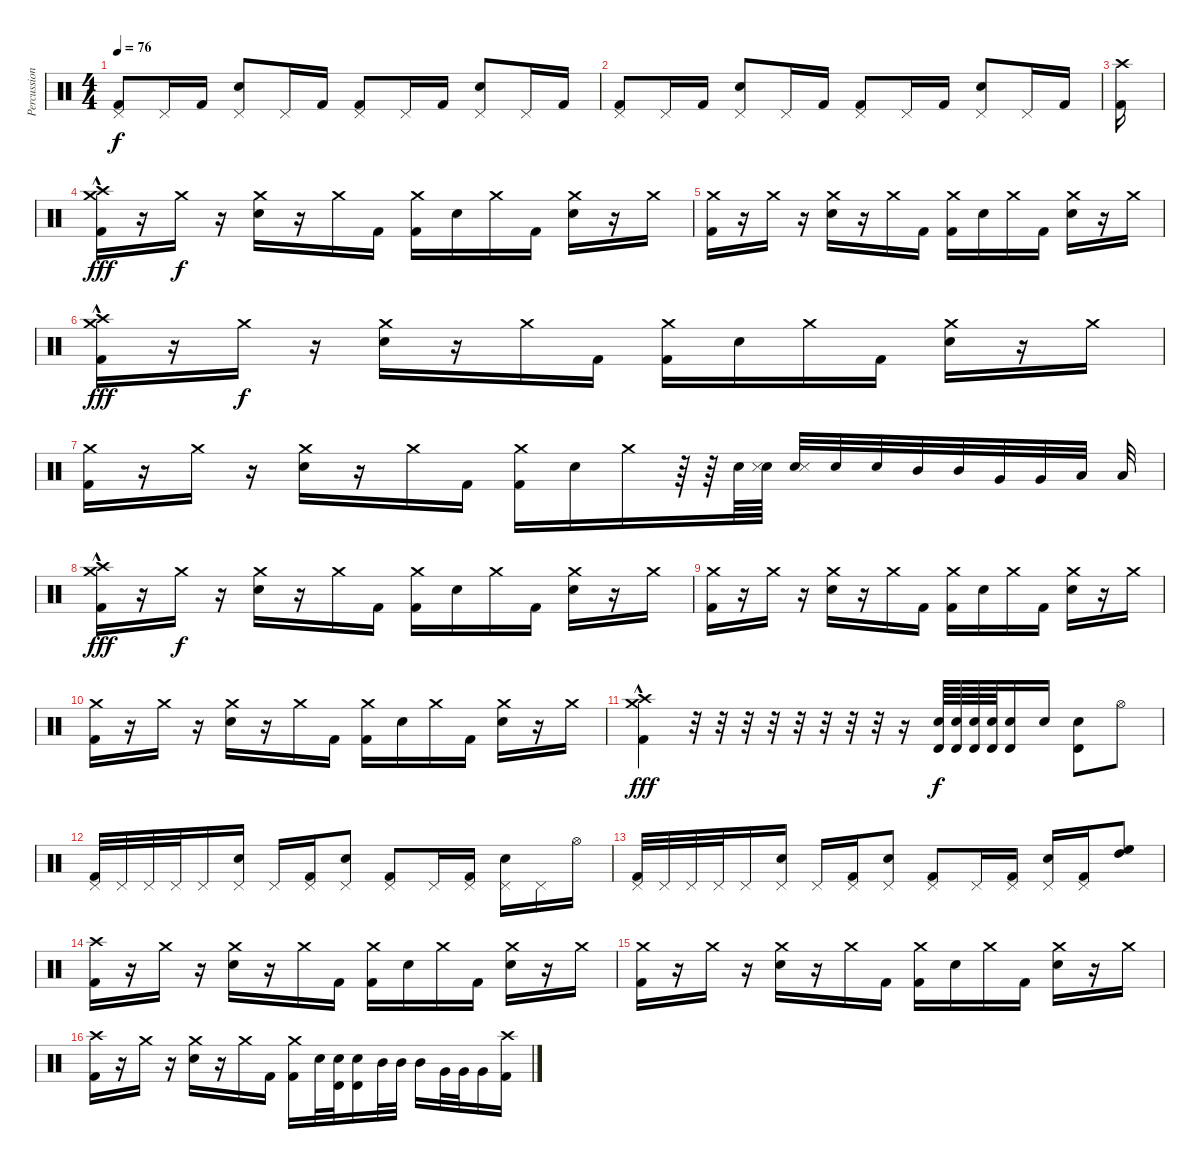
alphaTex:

\track ("Percussion" "Percussion") {instrument percussion}
\staff {score}
\articulation defaults
\ts (4 4)
\tempo 76
\clef neutral
\ks c
("Pedal Hi-Hat (hit)" "Kick (hit) 2").8{dy f volume 16} "Pedal Hi-Hat (hit)".16 "Kick (hit) 2".16 ("Pedal Hi-Hat (hit)" "Electric Snare (hit)").8 "Pedal Hi-Hat (hit)".16 "Kick (hit) 2".16 ("Pedal Hi-Hat (hit)" "Kick (hit) 2").8 "Pedal Hi-Hat (hit)".16 "Kick (hit) 2".16 ("Pedal Hi-Hat (hit)" "Electric Snare (hit)").8 "Pedal Hi-Hat (hit)".16 "Kick (hit) 2".16 |
("Pedal Hi-Hat (hit)" "Kick (hit) 2").8 "Pedal Hi-Hat (hit)".16 "Kick (hit) 2".16 ("Pedal Hi-Hat (hit)" "Electric Snare (hit)").8 "Pedal Hi-Hat (hit)".16 "Kick (hit) 2".16 ("Pedal Hi-Hat (hit)" "Kick (hit) 2").8 "Pedal Hi-Hat (hit)".16 "Kick (hit) 2".16 ("Pedal Hi-Hat (hit)" "Electric Snare (hit)").8 "Pedal Hi-Hat (hit)".16 "Kick (hit) 2".16 |
("Crash high (hit)" "Kick (hit) 2").16{volume 16} |
("Crash high (hit)"{hac} "Crash medium (hit)"{hac} "Kick (hit) 2").16{dy fff} r.16 "Crash medium (hit)".16{dy f} r.16 ("Crash medium (hit)" "Electric Snare (hit)").16 r.16 "Crash medium (hit)".16 "Kick (hit) 2".16 ("Crash medium (hit)" "Kick (hit) 2").16 "Electric Snare (hit)".16 "Crash medium (hit)".16 "Kick (hit) 2".16 ("Crash medium (hit)" "Electric Snare (hit)").16 r.16 "Crash medium (hit)".16 |
("Crash medium (hit)" "Kick (hit) 2").16 r.16 "Crash medium (hit)".16 r.16 ("Crash medium (hit)" "Electric Snare (hit)").16 r.16 "Crash medium (hit)".16 "Kick (hit) 2".16 ("Crash medium (hit)" "Kick (hit) 2").16 "Electric Snare (hit)".16 "Crash medium (hit)".16 "Kick (hit) 2".16 ("Crash medium (hit)" "Electric Snare (hit)").16 r.16 "Crash medium (hit)".16 |
("Crash high (hit)"{hac} "Crash medium (hit)"{hac} "Kick (hit) 2").16{dy fff} r.16 "Crash medium (hit)".16{dy f} r.16 ("Crash medium (hit)" "Electric Snare (hit)").16 r.16 "Crash medium (hit)".16 "Kick (hit) 2".16 ("Crash medium (hit)" "Kick (hit) 2").16 "Electric Snare (hit)".16 "Crash medium (hit)".16 "Kick (hit) 2".16 ("Crash medium (hit)" "Electric Snare (hit)").16 r.16 "Crash medium (hit)".16 |
("Crash medium (hit)" "Kick (hit) 2").16 r.16 "Crash medium (hit)".16 r.16 ("Crash medium (hit)" "Electric Snare (hit)").16 r.16 "Crash medium (hit)".16 "Kick (hit) 2".16 ("Crash medium (hit)" "Kick (hit) 2").16 "Electric Snare (hit)".16 "Crash medium (hit)".16 r.64 r.64 "Electric Snare (hit)".64 ("Electric Snare (hit)" "Snare (side stick) 3").64 ("Electric Snare (hit)" "Snare (side stick) 3").32 "Electric Snare (hit)".32 "Electric Snare (hit)".32 "Mid Tom (hit)".32 "Mid Tom (hit)".32 "Very Low Tom (hit)".32 "Very Low Tom (hit)".32 "Low Floor Tom (hit)".32 "Low Floor Tom (hit)".32 |
("Crash high (hit)"{hac} "Crash medium (hit)"{hac} "Kick (hit) 2"{hac}).16{dy fff} r.16 "Crash medium (hit)".16{dy f} r.16 ("Crash medium (hit)" "Electric Snare (hit)").16 r.16 "Crash medium (hit)".16 "Kick (hit) 2".16 ("Crash medium (hit)" "Kick (hit) 2").16 "Electric Snare (hit)".16 "Crash medium (hit)".16 "Kick (hit) 2".16 ("Crash medium (hit)" "Electric Snare (hit)").16 r.16 "Crash medium (hit)".16 |
("Crash medium (hit)" "Kick (hit) 2").16 r.16 "Crash medium (hit)".16 r.16 ("Crash medium (hit)" "Electric Snare (hit)").16 r.16 "Crash medium (hit)".16 "Kick (hit) 2".16 ("Crash medium (hit)" "Kick (hit) 2").16 "Electric Snare (hit)".16 "Crash medium (hit)".16 "Kick (hit) 2".16 ("Crash medium (hit)" "Electric Snare (hit)").16 r.16 "Crash medium (hit)".16 |
("Crash medium (hit)" "Kick (hit) 2").16 r.16 "Crash medium (hit)".16 r.16 ("Crash medium (hit)" "Electric Snare (hit)").16 r.16 "Crash medium (hit)".16 "Kick (hit) 2".16 ("Crash medium (hit)" "Kick (hit) 2").16 "Electric Snare (hit)".16 "Crash medium (hit)".16 "Kick (hit) 2".16 ("Crash medium (hit)" "Electric Snare (hit)").16 r.16 "Crash medium (hit)".16 |
("Crash high (hit)"{hac} "Crash medium (hit)"{hac} "Kick (hit) 2").4{dy fff} r.32 r.32 r.32 r.32 r.32 r.32 r.32 r.32 r.16 ("Electric Snare (hit)" "Timbale high (hit)").64{dy f} ("Electric Snare (hit)" "Timbale high (hit)").64 ("Electric Snare (hit)" "Timbale high (hit)").64 ("Electric Snare (hit)" "Timbale high (hit)").64 ("Electric Snare (hit)" "Timbale high (hit)").16 "Electric Snare (hit)".16 ("Electric Snare (hit)" "Timbale high (hit)").8 "Hi-Hat (open)".8 |
("Pedal Hi-Hat (hit)" "Kick (hit) 2").32 "Pedal Hi-Hat (hit)".32 "Pedal Hi-Hat (hit)".32 "Pedal Hi-Hat (hit)".32 "Pedal Hi-Hat (hit)".16 ("Pedal Hi-Hat (hit)" "Electric Snare (hit)").16 "Pedal Hi-Hat (hit)".16 ("Pedal Hi-Hat (hit)" "Kick (hit) 2").16 ("Pedal Hi-Hat (hit)" "Electric Snare (hit)").8 ("Pedal Hi-Hat (hit)" "Kick (hit) 2").8 "Pedal Hi-Hat (hit)".16 ("Pedal Hi-Hat (hit)" "Kick (hit) 2").16 ("Pedal Hi-Hat (hit)" "Electric Snare (hit)").16 "Pedal Hi-Hat (hit)".16 "Hi-Hat (open)".16 |
("Pedal Hi-Hat (hit)" "Kick (hit) 2").32 "Pedal Hi-Hat (hit)".32 "Pedal Hi-Hat (hit)".32 "Pedal Hi-Hat (hit)".32 "Pedal Hi-Hat (hit)".16 ("Pedal Hi-Hat (hit)" "Electric Snare (hit)").16 "Pedal Hi-Hat (hit)".16 ("Pedal Hi-Hat (hit)" "Kick (hit) 2").16 ("Pedal Hi-Hat (hit)" "Electric Snare (hit)").8 ("Pedal Hi-Hat (hit)" "Kick (hit) 2").8 "Pedal Hi-Hat (hit)".16 ("Pedal Hi-Hat (hit)" "Kick (hit) 2").16 ("Pedal Hi-Hat (hit)" "Electric Snare (hit)").16 ("Pedal Hi-Hat (hit)" "Kick (hit) 2").16 ("High Tom (hit)" "High Floor Tom (hit)").8 |
("Crash high (hit)" "Kick (hit) 2").16 r.16 "Crash medium (hit)".16 r.16 ("Crash medium (hit)" "Electric Snare (hit)").16 r.16 "Crash medium (hit)".16 "Kick (hit) 2".16 ("Crash medium (hit)" "Kick (hit) 2").16 "Electric Snare (hit)".16 "Crash medium (hit)".16 "Kick (hit) 2".16 ("Crash medium (hit)" "Electric Snare (hit)").16 r.16 "Crash medium (hit)".16 |
("Crash medium (hit)" "Kick (hit) 2").16 r.16 "Crash medium (hit)".16 r.16 ("Crash medium (hit)" "Electric Snare (hit)").16 r.16 "Crash medium (hit)".16 "Kick (hit) 2".16 ("Crash medium (hit)" "Kick (hit) 2").16 "Electric Snare (hit)".16 "Crash medium (hit)".16 "Kick (hit) 2".16 ("Crash medium (hit)" "Electric Snare (hit)").16 r.16 "Crash medium (hit)".16 |
("Crash high (hit)" "Kick (hit) 2").16 r.16 "Crash medium (hit)".16 r.16 ("Crash medium (hit)" "Electric Snare (hit)").16 r.16 "Crash medium (hit)".16 "Kick (hit) 2".16 ("Crash medium (hit)" "Kick (hit) 2").16 "Electric Snare (hit)".32 ("Electric Snare (hit)" "Timbale high (hit)").32 ("Electric Snare (hit)" "Timbale high (hit)").16 "Mid Tom (hit)".32 "Mid Tom (hit)".32 "Mid Tom (hit)".16 "Very Low Tom (hit)".32 "Very Low Tom (hit)".32 "Very Low Tom (hit)".16 ("Crash high (hit)" "Kick (hit) 2").16
